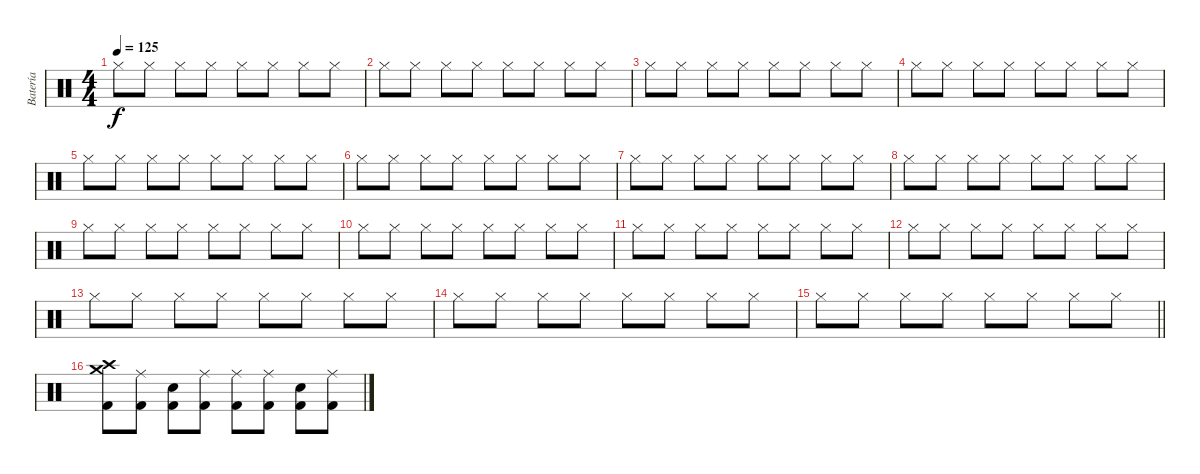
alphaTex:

\track ("Batería" "Batería") {instrument percussion}
\staff {score}
\articulation defaults
\ts (4 4)
\tempo 125
\clef neutral
\ks c "Hi-Hat (closed)".8{dy f} "Hi-Hat (closed)".8 "Hi-Hat (closed)".8 "Hi-Hat (closed)".8 "Hi-Hat (closed)".8 "Hi-Hat (closed)".8 "Hi-Hat (closed)".8 "Hi-Hat (closed)".8
|
"Hi-Hat (closed)".8 "Hi-Hat (closed)".8 "Hi-Hat (closed)".8 "Hi-Hat (closed)".8 "Hi-Hat (closed)".8 "Hi-Hat (closed)".8 "Hi-Hat (closed)".8 "Hi-Hat (closed)".8 |
"Hi-Hat (closed)".8 "Hi-Hat (closed)".8 "Hi-Hat (closed)".8 "Hi-Hat (closed)".8 "Hi-Hat (closed)".8 "Hi-Hat (closed)".8 "Hi-Hat (closed)".8 "Hi-Hat (closed)".8 |
"Hi-Hat (closed)".8 "Hi-Hat (closed)".8 "Hi-Hat (closed)".8 "Hi-Hat (closed)".8 "Hi-Hat (closed)".8 "Hi-Hat (closed)".8 "Hi-Hat (closed)".8 "Hi-Hat (closed)".8 |
"Hi-Hat (closed)".8 "Hi-Hat (closed)".8 "Hi-Hat (closed)".8 "Hi-Hat (closed)".8 "Hi-Hat (closed)".8 "Hi-Hat (closed)".8 "Hi-Hat (closed)".8 "Hi-Hat (closed)".8 |
"Hi-Hat (closed)".8 "Hi-Hat (closed)".8 "Hi-Hat (closed)".8 "Hi-Hat (closed)".8 "Hi-Hat (closed)".8 "Hi-Hat (closed)".8 "Hi-Hat (closed)".8 "Hi-Hat (closed)".8 |
"Hi-Hat (closed)".8 "Hi-Hat (closed)".8 "Hi-Hat (closed)".8 "Hi-Hat (closed)".8 "Hi-Hat (closed)".8 "Hi-Hat (closed)".8 "Hi-Hat (closed)".8 "Hi-Hat (closed)".8 |
"Hi-Hat (closed)".8 "Hi-Hat (closed)".8 "Hi-Hat (closed)".8 "Hi-Hat (closed)".8 "Hi-Hat (closed)".8 "Hi-Hat (closed)".8 "Hi-Hat (closed)".8 "Hi-Hat (closed)".8 |
"Hi-Hat (closed)".8 "Hi-Hat (closed)".8 "Hi-Hat (closed)".8 "Hi-Hat (closed)".8 "Hi-Hat (closed)".8 "Hi-Hat (closed)".8 "Hi-Hat (closed)".8 "Hi-Hat (closed)".8 |
"Hi-Hat (closed)".8 "Hi-Hat (closed)".8 "Hi-Hat (closed)".8 "Hi-Hat (closed)".8 "Hi-Hat (closed)".8 "Hi-Hat (closed)".8 "Hi-Hat (closed)".8 "Hi-Hat (closed)".8 |
"Hi-Hat (closed)".8 "Hi-Hat (closed)".8 "Hi-Hat (closed)".8 "Hi-Hat (closed)".8 "Hi-Hat (closed)".8 "Hi-Hat (closed)".8 "Hi-Hat (closed)".8 "Hi-Hat (closed)".8 |
"Hi-Hat (closed)".8 "Hi-Hat (closed)".8 "Hi-Hat (closed)".8 "Hi-Hat (closed)".8 "Hi-Hat (closed)".8 "Hi-Hat (closed)".8 "Hi-Hat (closed)".8 "Hi-Hat (closed)".8 |
"Hi-Hat (closed)".8 "Hi-Hat (closed)".8 "Hi-Hat (closed)".8 "Hi-Hat (closed)".8 "Hi-Hat (closed)".8 "Hi-Hat (closed)".8 "Hi-Hat (closed)".8 "Hi-Hat (closed)".8 |
"Hi-Hat (closed)".8 "Hi-Hat (closed)".8 "Hi-Hat (closed)".8 "Hi-Hat (closed)".8 "Hi-Hat (closed)".8 "Hi-Hat (closed)".8 "Hi-Hat (closed)".8 "Hi-Hat (closed)".8 |
\barLineRight lightlight "Hi-Hat (closed)".8 "Hi-Hat (closed)".8 "Hi-Hat (closed)".8 "Hi-Hat (closed)".8 "Hi-Hat (closed)".8 "Hi-Hat (closed)".8 "Hi-Hat (closed)".8 "Hi-Hat (closed)".8
|
\section ("" "")
("Crash medium (hit)" "Crash high (hit)" "Kick (hit) 2").8 ("Ride (middle)" "Kick (hit) 2").8 ("Electric Snare (hit)" "Kick (hit) 2").8 ("Ride (middle)" "Kick (hit) 2").8 ("Ride (middle)" "Kick (hit) 2").8 ("Ride (middle)" "Kick (hit) 2").8 ("Electric Snare (hit)" "Kick (hit) 2").8 ("Ride (middle)" "Kick (hit) 2").8
